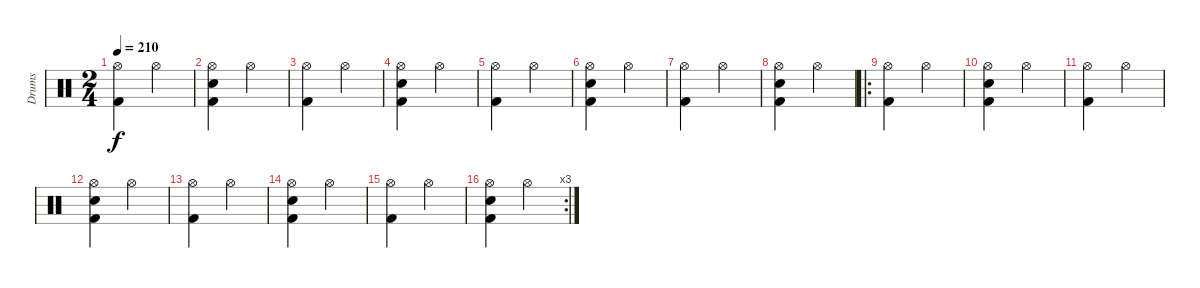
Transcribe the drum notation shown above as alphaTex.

\track ("Drums" "Drums") {instrument percussion}
\staff {score}
\articulation defaults
\ts (2 4)
\tempo 210
\clef neutral
\ks c
("Hi-Hat (open)" "Kick (hit) 2").4{dy f} "Hi-Hat (open)".4 |
("Hi-Hat (open)" "Electric Snare (hit)" "Kick (hit) 2").4 "Hi-Hat (open)".4 |
("Hi-Hat (open)" "Kick (hit) 2").4 "Hi-Hat (open)".4 |
("Hi-Hat (open)" "Electric Snare (hit)" "Kick (hit) 2").4 "Hi-Hat (open)".4 |
("Hi-Hat (open)" "Kick (hit) 2").4 "Hi-Hat (open)".4 |
("Hi-Hat (open)" "Electric Snare (hit)" "Kick (hit) 2").4 "Hi-Hat (open)".4 |
("Hi-Hat (open)" "Kick (hit) 2").4 "Hi-Hat (open)".4 |
("Hi-Hat (open)" "Electric Snare (hit)" "Kick (hit) 2").4 "Hi-Hat (open)".4 |
\ro
("Hi-Hat (open)" "Kick (hit) 2").4 "Hi-Hat (open)".4 |
("Hi-Hat (open)" "Electric Snare (hit)" "Kick (hit) 2").4 "Hi-Hat (open)".4 |
("Hi-Hat (open)" "Kick (hit) 2").4 "Hi-Hat (open)".4 |
("Hi-Hat (open)" "Electric Snare (hit)" "Kick (hit) 2").4 "Hi-Hat (open)".4 |
("Hi-Hat (open)" "Kick (hit) 2").4 "Hi-Hat (open)".4 |
("Hi-Hat (open)" "Electric Snare (hit)" "Kick (hit) 2").4 "Hi-Hat (open)".4 |
("Hi-Hat (open)" "Kick (hit) 2").4 "Hi-Hat (open)".4 |
\rc 3
("Hi-Hat (open)" "Electric Snare (hit)" "Kick (hit) 2").4 "Hi-Hat (open)".4
